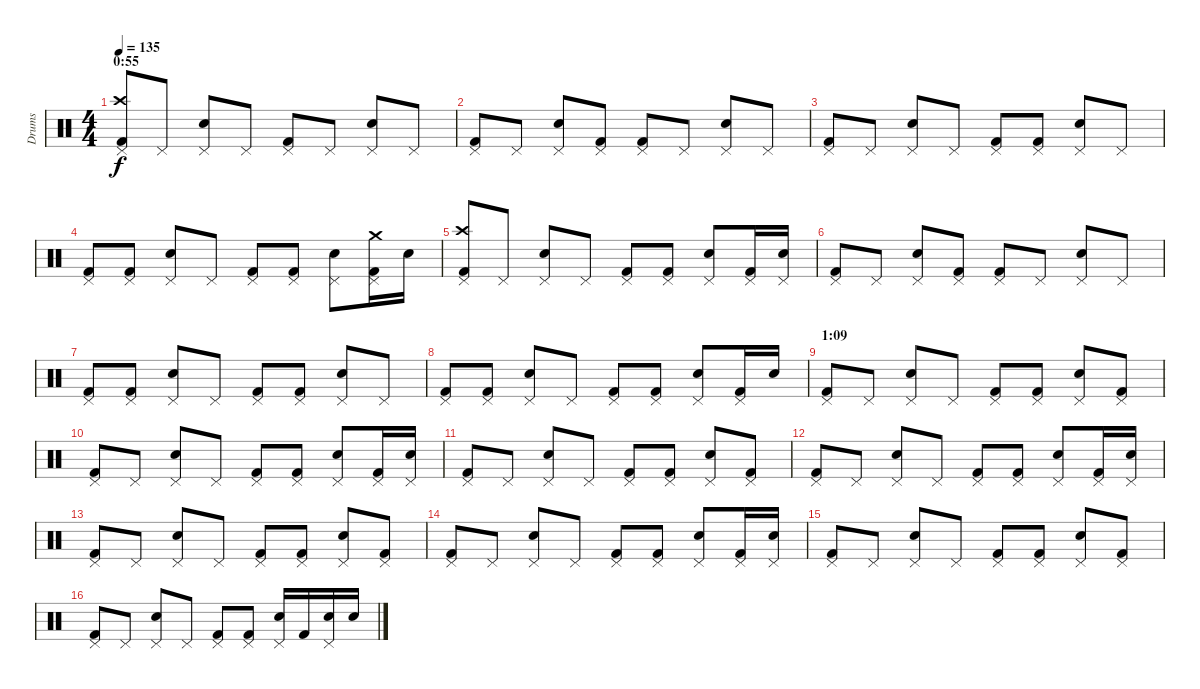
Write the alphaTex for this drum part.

\track ("Drums" "Drums") {instrument percussion}
\staff {score}
\articulation defaults
\ts (4 4)
\section ("" "0:55")
\tempo 135
\clef neutral
\ks c
("Pedal Hi-Hat (hit)" "Crash high (hit)" "Kick (hit) 2").8{dy f} "Pedal Hi-Hat (hit)".8 ("Pedal Hi-Hat (hit)" "Snare (hit) 2").8 "Pedal Hi-Hat (hit)".8 ("Pedal Hi-Hat (hit)" "Kick (hit) 2").8 "Pedal Hi-Hat (hit)".8 ("Pedal Hi-Hat (hit)" "Snare (hit) 2").8 "Pedal Hi-Hat (hit)".8 |
("Pedal Hi-Hat (hit)" "Kick (hit) 2").8 "Pedal Hi-Hat (hit)".8 ("Pedal Hi-Hat (hit)" "Snare (hit) 2").8 ("Pedal Hi-Hat (hit)" "Kick (hit) 2").8 ("Pedal Hi-Hat (hit)" "Kick (hit) 2").8 "Pedal Hi-Hat (hit)".8 ("Pedal Hi-Hat (hit)" "Snare (hit) 2").8 "Pedal Hi-Hat (hit)".8 |
("Pedal Hi-Hat (hit)" "Kick (hit) 2").8 "Pedal Hi-Hat (hit)".8 ("Pedal Hi-Hat (hit)" "Snare (hit) 2").8 "Pedal Hi-Hat (hit)".8 ("Pedal Hi-Hat (hit)" "Kick (hit) 2").8 ("Pedal Hi-Hat (hit)" "Kick (hit) 2").8 ("Pedal Hi-Hat (hit)" "Snare (hit) 2").8 "Pedal Hi-Hat (hit)".8 |
("Pedal Hi-Hat (hit)" "Kick (hit) 2").8 ("Pedal Hi-Hat (hit)" "Kick (hit) 2").8 ("Pedal Hi-Hat (hit)" "Snare (hit) 2").8 "Pedal Hi-Hat (hit)".8 ("Pedal Hi-Hat (hit)" "Kick (hit) 2").8 ("Pedal Hi-Hat (hit)" "Kick (hit) 2").8 ("Pedal Hi-Hat (hit)" "Snare (hit) 2").8 ("Pedal Hi-Hat (hit)" "Crash medium (hit)" "Kick (hit) 2").16 "Snare (hit) 2".16 |
("Pedal Hi-Hat (hit)" "Crash high (hit)" "Kick (hit) 2").8 "Pedal Hi-Hat (hit)".8 ("Pedal Hi-Hat (hit)" "Snare (hit) 2").8 "Pedal Hi-Hat (hit)".8 ("Pedal Hi-Hat (hit)" "Kick (hit) 2").8 ("Pedal Hi-Hat (hit)" "Kick (hit) 2").8 ("Pedal Hi-Hat (hit)" "Snare (hit) 2").8 ("Pedal Hi-Hat (hit)" "Kick (hit) 2").16 ("Pedal Hi-Hat (hit)" "Snare (hit) 2").16 |
("Pedal Hi-Hat (hit)" "Kick (hit) 2").8 "Pedal Hi-Hat (hit)".8 ("Pedal Hi-Hat (hit)" "Snare (hit) 2").8 ("Pedal Hi-Hat (hit)" "Kick (hit) 2").8 ("Pedal Hi-Hat (hit)" "Kick (hit) 2").8 "Pedal Hi-Hat (hit)".8 ("Pedal Hi-Hat (hit)" "Snare (hit) 2").8 "Pedal Hi-Hat (hit)".8 |
("Pedal Hi-Hat (hit)" "Kick (hit) 2").8 ("Pedal Hi-Hat (hit)" "Kick (hit) 2").8 ("Pedal Hi-Hat (hit)" "Snare (hit) 2").8 "Pedal Hi-Hat (hit)".8 ("Pedal Hi-Hat (hit)" "Kick (hit) 2").8 ("Pedal Hi-Hat (hit)" "Kick (hit) 2").8 ("Pedal Hi-Hat (hit)" "Snare (hit) 2").8 "Pedal Hi-Hat (hit)".8 |
("Pedal Hi-Hat (hit)" "Kick (hit) 2").8 ("Pedal Hi-Hat (hit)" "Kick (hit) 2").8 ("Pedal Hi-Hat (hit)" "Snare (hit) 2").8 "Pedal Hi-Hat (hit)".8 ("Pedal Hi-Hat (hit)" "Kick (hit) 2").8 ("Pedal Hi-Hat (hit)" "Kick (hit) 2").8 ("Pedal Hi-Hat (hit)" "Snare (hit) 2").8 ("Pedal Hi-Hat (hit)" "Kick (hit) 2").16 "Snare (hit) 2".16 |
\section ("" "1:09")
("Pedal Hi-Hat (hit)" "Kick (hit) 2").8 "Pedal Hi-Hat (hit)".8 ("Pedal Hi-Hat (hit)" "Snare (hit) 2").8 "Pedal Hi-Hat (hit)".8 ("Pedal Hi-Hat (hit)" "Kick (hit) 2").8 ("Pedal Hi-Hat (hit)" "Kick (hit) 2").8 ("Pedal Hi-Hat (hit)" "Snare (hit) 2").8 ("Pedal Hi-Hat (hit)" "Kick (hit) 2").8 |
("Pedal Hi-Hat (hit)" "Kick (hit) 2").8 "Pedal Hi-Hat (hit)".8 ("Pedal Hi-Hat (hit)" "Snare (hit) 2").8 "Pedal Hi-Hat (hit)".8 ("Pedal Hi-Hat (hit)" "Kick (hit) 2").8 ("Pedal Hi-Hat (hit)" "Kick (hit) 2").8 ("Pedal Hi-Hat (hit)" "Snare (hit) 2").8 ("Pedal Hi-Hat (hit)" "Kick (hit) 2").16 ("Pedal Hi-Hat (hit)" "Snare (hit) 2").16 |
("Pedal Hi-Hat (hit)" "Kick (hit) 2").8 "Pedal Hi-Hat (hit)".8 ("Pedal Hi-Hat (hit)" "Snare (hit) 2").8 "Pedal Hi-Hat (hit)".8 ("Pedal Hi-Hat (hit)" "Kick (hit) 2").8 ("Pedal Hi-Hat (hit)" "Kick (hit) 2").8 ("Pedal Hi-Hat (hit)" "Snare (hit) 2").8 ("Pedal Hi-Hat (hit)" "Kick (hit) 2").8 |
("Pedal Hi-Hat (hit)" "Kick (hit) 2").8 "Pedal Hi-Hat (hit)".8 ("Pedal Hi-Hat (hit)" "Snare (hit) 2").8 "Pedal Hi-Hat (hit)".8 ("Pedal Hi-Hat (hit)" "Kick (hit) 2").8 ("Pedal Hi-Hat (hit)" "Kick (hit) 2").8 ("Pedal Hi-Hat (hit)" "Snare (hit) 2").8 ("Pedal Hi-Hat (hit)" "Kick (hit) 2").16 ("Pedal Hi-Hat (hit)" "Snare (hit) 2").16 |
("Pedal Hi-Hat (hit)" "Kick (hit) 2").8 "Pedal Hi-Hat (hit)".8 ("Pedal Hi-Hat (hit)" "Snare (hit) 2").8 "Pedal Hi-Hat (hit)".8 ("Pedal Hi-Hat (hit)" "Kick (hit) 2").8 ("Pedal Hi-Hat (hit)" "Kick (hit) 2").8 ("Pedal Hi-Hat (hit)" "Snare (hit) 2").8 ("Pedal Hi-Hat (hit)" "Kick (hit) 2").8 |
("Pedal Hi-Hat (hit)" "Kick (hit) 2").8 "Pedal Hi-Hat (hit)".8 ("Pedal Hi-Hat (hit)" "Snare (hit) 2").8 "Pedal Hi-Hat (hit)".8 ("Pedal Hi-Hat (hit)" "Kick (hit) 2").8 ("Pedal Hi-Hat (hit)" "Kick (hit) 2").8 ("Pedal Hi-Hat (hit)" "Snare (hit) 2").8 ("Pedal Hi-Hat (hit)" "Kick (hit) 2").16 ("Pedal Hi-Hat (hit)" "Snare (hit) 2").16 |
("Pedal Hi-Hat (hit)" "Kick (hit) 2").8 "Pedal Hi-Hat (hit)".8 ("Pedal Hi-Hat (hit)" "Snare (hit) 2").8 "Pedal Hi-Hat (hit)".8 ("Pedal Hi-Hat (hit)" "Kick (hit) 2").8 ("Pedal Hi-Hat (hit)" "Kick (hit) 2").8 ("Pedal Hi-Hat (hit)" "Snare (hit) 2").8 ("Pedal Hi-Hat (hit)" "Kick (hit) 2").8 |
("Pedal Hi-Hat (hit)" "Kick (hit) 2").8 "Pedal Hi-Hat (hit)".8 ("Pedal Hi-Hat (hit)" "Snare (hit) 2").8 "Pedal Hi-Hat (hit)".8 ("Pedal Hi-Hat (hit)" "Kick (hit) 2").8 ("Pedal Hi-Hat (hit)" "Kick (hit) 2").8 ("Pedal Hi-Hat (hit)" "Snare (hit) 2").16 "Kick (hit) 2".16 ("Pedal Hi-Hat (hit)" "Snare (hit) 2").16 "Snare (hit) 2".16
